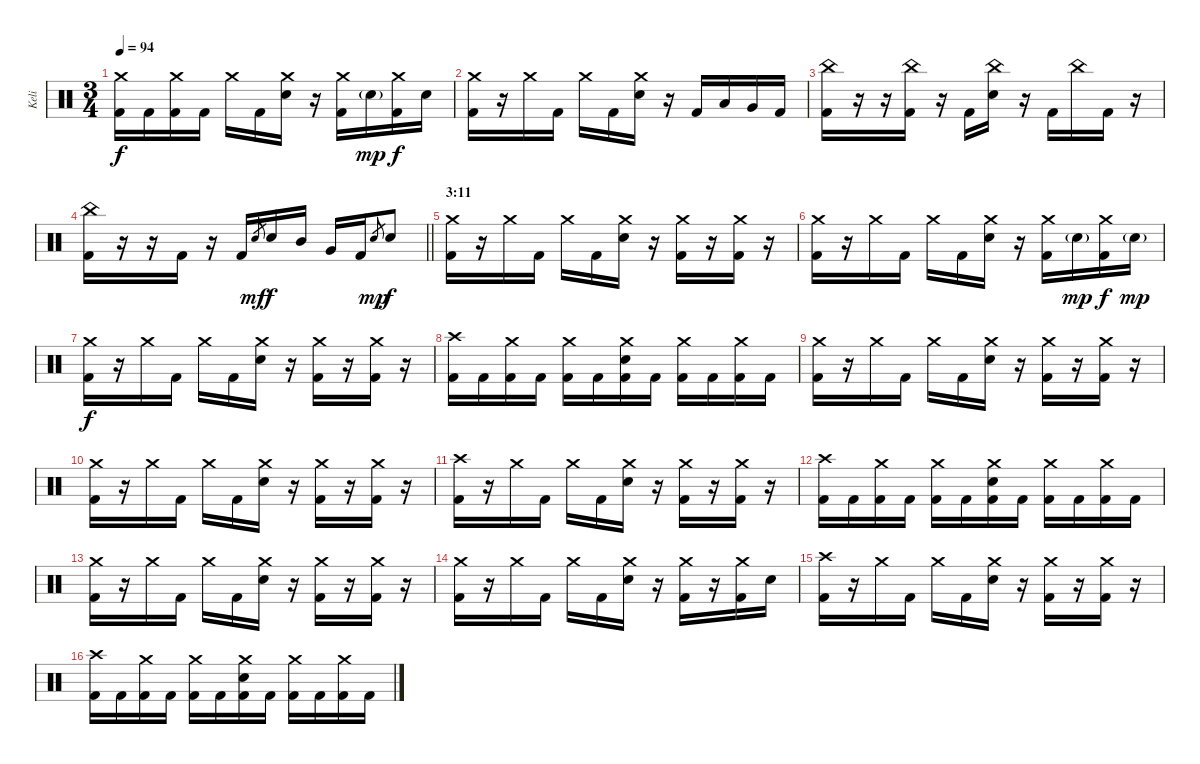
\track ("Keli" "Keli") {instrument percussion}
\staff {score}
\articulation defaults
\ts (3 4)
\tempo 94
\clef neutral
\ks c
("Crash medium (hit)" "Kick (hit) 2").16{dy f} "Kick (hit) 2".16 ("Crash medium (hit)" "Kick (hit) 2").16 "Kick (hit) 2".16 "Crash medium (hit)".16 "Kick (hit) 2".16 ("Crash medium (hit)" "Snare (hit) 2").16 r.16 ("Crash medium (hit)" "Kick (hit) 2").16 "Snare (hit) 2"{g}.16{dy mp} ("Crash medium (hit)" "Kick (hit) 2").16{dy f} "Snare (hit) 2".16 |
("Crash medium (hit)" "Kick (hit) 2").16 r.16 "Crash medium (hit)".16 "Kick (hit) 2".16 "Crash medium (hit)".16 "Kick (hit) 2".16 ("Crash medium (hit)" "Snare (hit) 2").16 r.16 "Kick (hit) 2".16 "Low Tom (hit)".16 "Very Low Tom (hit)".16 "Kick (hit) 2".16 |
("China (hit)" "Kick (hit) 2").16 r.16 r.16 ("China (hit)" "Kick (hit) 2").16 r.16 "Kick (hit) 2".16 ("China (hit)" "Snare (hit) 2").16 r.16 "Kick (hit) 2".16 "China (hit)".16 "Kick (hit) 2".16 r.16 |
\barLineRight lightlight
("China (hit)" "Kick (hit) 2").16 r.16 r.16 "Kick (hit) 2".16 r.16 "Kick (hit) 2".16 "Snare (hit) 2".8{gr dy mf} "Snare (hit) 2".16{dy f} "Mid Tom (hit)".16 "Very Low Tom (hit)".16 "Kick (hit) 2".16 "Snare (hit) 2".8{gr dy mp} "Snare (hit) 2".8{dy f} |
\section ("" "3:11")
("Crash medium (hit)" "Kick (hit) 2").16 r.16 "Crash medium (hit)".16 "Kick (hit) 2".16 "Crash medium (hit)".16 "Kick (hit) 2".16 ("Crash medium (hit)" "Snare (hit) 2").16 r.16 ("Crash medium (hit)" "Kick (hit) 2").16 r.16 ("Crash medium (hit)" "Kick (hit) 2").16 r.16 |
("Crash medium (hit)" "Kick (hit) 2").16 r.16 "Crash medium (hit)".16 "Kick (hit) 2".16 "Crash medium (hit)".16 "Kick (hit) 2".16 ("Crash medium (hit)" "Snare (hit) 2").16 r.16 ("Crash medium (hit)" "Kick (hit) 2").16 "Snare (hit) 2"{g}.16{dy mp} ("Crash medium (hit)" "Kick (hit) 2").16{dy f} "Snare (hit) 2"{g}.16{dy mp} |
("Crash medium (hit)" "Kick (hit) 2").16{dy f} r.16 "Crash medium (hit)".16 "Kick (hit) 2".16 "Crash medium (hit)".16 "Kick (hit) 2".16 ("Crash medium (hit)" "Snare (hit) 2").16 r.16 ("Crash medium (hit)" "Kick (hit) 2").16 r.16 ("Crash medium (hit)" "Kick (hit) 2").16 r.16 |
("Crash high (hit)" "Kick (hit) 2").16 "Kick (hit) 2".16 ("Crash medium (hit)" "Kick (hit) 2").16 "Kick (hit) 2".16 ("Crash medium (hit)" "Kick (hit) 2").16 "Kick (hit) 2".16 ("Crash medium (hit)" "Snare (hit) 2" "Kick (hit) 2").16 "Kick (hit) 2".16 ("Crash medium (hit)" "Kick (hit) 2").16 "Kick (hit) 2".16 ("Crash medium (hit)" "Kick (hit) 2").16 "Kick (hit) 2".16 |
("Crash medium (hit)" "Kick (hit) 2").16 r.16 "Crash medium (hit)".16 "Kick (hit) 2".16 "Crash medium (hit)".16 "Kick (hit) 2".16 ("Crash medium (hit)" "Snare (hit) 2").16 r.16 ("Crash medium (hit)" "Kick (hit) 2").16 r.16 ("Crash medium (hit)" "Kick (hit) 2").16 r.16 |
("Crash medium (hit)" "Kick (hit) 2").16 r.16 "Crash medium (hit)".16 "Kick (hit) 2".16 "Crash medium (hit)".16 "Kick (hit) 2".16 ("Crash medium (hit)" "Snare (hit) 2").16 r.16 ("Crash medium (hit)" "Kick (hit) 2").16 r.16 ("Crash medium (hit)" "Kick (hit) 2").16 r.16 |
("Crash high (hit)" "Kick (hit) 2").16 r.16 "Crash medium (hit)".16 "Kick (hit) 2".16 "Crash medium (hit)".16 "Kick (hit) 2".16 ("Crash medium (hit)" "Snare (hit) 2").16 r.16 ("Crash medium (hit)" "Kick (hit) 2").16 r.16 ("Crash medium (hit)" "Kick (hit) 2").16 r.16 |
("Crash high (hit)" "Kick (hit) 2").16 "Kick (hit) 2".16 ("Crash medium (hit)" "Kick (hit) 2").16 "Kick (hit) 2".16 ("Crash medium (hit)" "Kick (hit) 2").16 "Kick (hit) 2".16 ("Crash medium (hit)" "Snare (hit) 2" "Kick (hit) 2").16 "Kick (hit) 2".16 ("Crash medium (hit)" "Kick (hit) 2").16 "Kick (hit) 2".16 ("Crash medium (hit)" "Kick (hit) 2").16 "Kick (hit) 2".16 |
("Crash medium (hit)" "Kick (hit) 2").16 r.16 "Crash medium (hit)".16 "Kick (hit) 2".16 "Crash medium (hit)".16 "Kick (hit) 2".16 ("Crash medium (hit)" "Snare (hit) 2").16 r.16 ("Crash medium (hit)" "Kick (hit) 2").16 r.16 ("Crash medium (hit)" "Kick (hit) 2").16 r.16 |
("Crash medium (hit)" "Kick (hit) 2").16 r.16 "Crash medium (hit)".16 "Kick (hit) 2".16 "Crash medium (hit)".16 "Kick (hit) 2".16 ("Crash medium (hit)" "Snare (hit) 2").16 r.16 ("Crash medium (hit)" "Kick (hit) 2").16 r.16 ("Crash medium (hit)" "Kick (hit) 2").16 "Snare (hit) 2".16 |
("Crash high (hit)" "Kick (hit) 2").16 r.16 "Crash medium (hit)".16 "Kick (hit) 2".16 "Crash medium (hit)".16 "Kick (hit) 2".16 ("Crash medium (hit)" "Snare (hit) 2").16 r.16 ("Crash medium (hit)" "Kick (hit) 2").16 r.16 ("Crash medium (hit)" "Kick (hit) 2").16 r.16 |
("Crash high (hit)" "Kick (hit) 2").16 "Kick (hit) 2".16 ("Crash medium (hit)" "Kick (hit) 2").16 "Kick (hit) 2".16 ("Crash medium (hit)" "Kick (hit) 2").16 "Kick (hit) 2".16 ("Crash medium (hit)" "Snare (hit) 2" "Kick (hit) 2").16 "Kick (hit) 2".16 ("Crash medium (hit)" "Kick (hit) 2").16 "Kick (hit) 2".16 ("Crash medium (hit)" "Kick (hit) 2").16 "Kick (hit) 2".16
